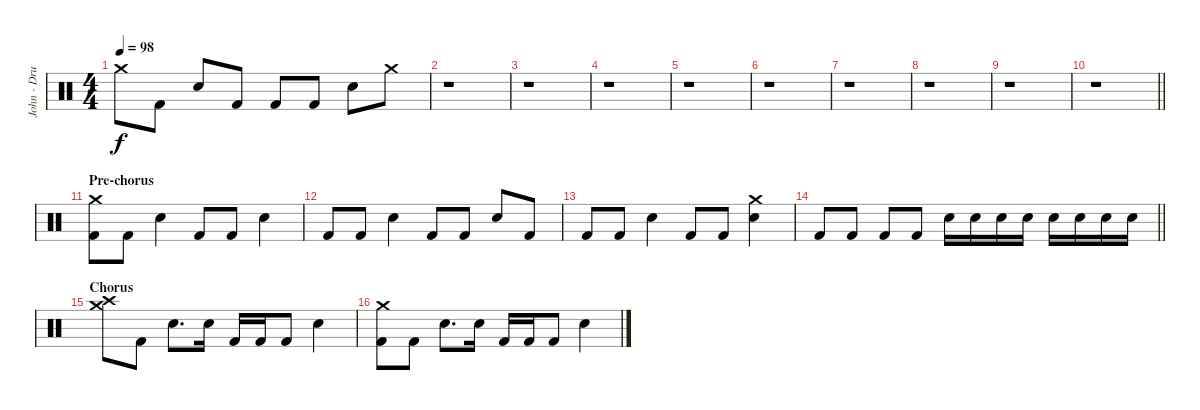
\track ("John - Drums" "John - Dru") {instrument percussion}
\staff {score}
\articulation defaults
\ts (4 4)
\tempo 98
\clef neutral
\ks c "Crash medium (hit)".8{dy f} "Kick (hit) 2".8 "Electric Snare (hit)".8 "Kick (hit) 2".8 "Kick (hit) 2".8 "Kick (hit) 2".8 "Electric Snare (hit)".8 "Crash medium (hit)".8
|
r.1 |
r.1 |
r.1 |
r.1 |
r.1 |
r.1 |
r.1 |
r.1 |
\barLineRight lightlight
r.1 |
\section ("" "Pre-chorus")
("Crash medium (hit)" "Kick (hit) 2").8 "Kick (hit) 2".8 "Electric Snare (hit)".4 "Kick (hit) 2".8 "Kick (hit) 2".8 "Electric Snare (hit)".4 |
"Kick (hit) 2".8 "Kick (hit) 2".8 "Electric Snare (hit)".4 "Kick (hit) 2".8 "Kick (hit) 2".8 "Electric Snare (hit)".8 "Kick (hit) 2".8 |
"Kick (hit) 2".8 "Kick (hit) 2".8 "Electric Snare (hit)".4 "Kick (hit) 2".8 "Kick (hit) 2".8 ("Electric Snare (hit)" "Crash medium (hit)").4 |
\barLineRight lightlight "Kick (hit) 2".8 "Kick (hit) 2".8 "Kick (hit) 2".8 "Kick (hit) 2".8 "Electric Snare (hit)".16 "Electric Snare (hit)".16 "Electric Snare (hit)".16 "Electric Snare (hit)".16 "Electric Snare (hit)".16 "Electric Snare (hit)".16 "Electric Snare (hit)".16 "Electric Snare (hit)".16
|
\section ("" "Chorus")
("Crash high (hit)" "Crash medium (hit)").8 "Kick (hit) 2".8 "Electric Snare (hit)".8{d} "Electric Snare (hit)".16 "Kick (hit) 2".16 "Kick (hit) 2".16 "Kick (hit) 2".8 "Electric Snare (hit)".4 |
("Crash medium (hit)" "Kick (hit) 2").8 "Kick (hit) 2".8 "Electric Snare (hit)".8{d} "Electric Snare (hit)".16 "Kick (hit) 2".16 "Kick (hit) 2".16 "Kick (hit) 2".8 "Electric Snare (hit)".4
